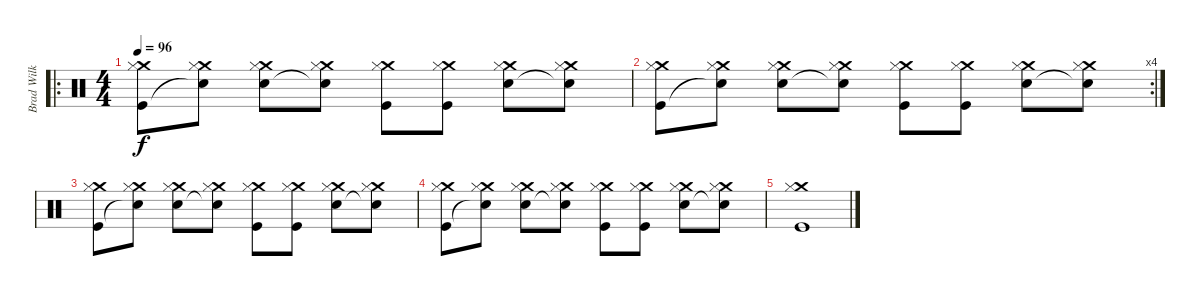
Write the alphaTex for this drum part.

\track ("Brad Wilk" "Brad Wilk") {instrument percussion}
\staff {score}
\articulation defaults
\ro
\ts (4 4)
\tempo 96
\clef neutral
\ks c
("Crash medium (hit)" "Hi-Hat (closed)" "Kick (hit)").8{dy f} ("Crash medium (hit)" "Hi-Hat (closed)" "Snare (hit)"{t}).8 ("Crash medium (hit)" "Hi-Hat (closed)" "Snare (hit) 2").8 ("Crash medium (hit)" "Hi-Hat (closed)" "Snare (hit)"{t}).8 ("Crash medium (hit)" "Hi-Hat (closed)" "Kick (hit)").8 ("Crash medium (hit)" "Hi-Hat (closed)" "Kick (hit)").8 ("Crash medium (hit)" "Hi-Hat (closed)" "Snare (hit) 2").8 ("Crash medium (hit)" "Hi-Hat (closed)" "Snare (hit)"{t}).8 |
\rc 4
("Crash medium (hit)" "Hi-Hat (closed)" "Kick (hit)").8 ("Crash medium (hit)" "Hi-Hat (closed)" "Snare (hit)"{t}).8 ("Crash medium (hit)" "Hi-Hat (closed)" "Snare (hit) 2").8 ("Crash medium (hit)" "Hi-Hat (closed)" "Snare (hit)"{t}).8 ("Crash medium (hit)" "Hi-Hat (closed)" "Kick (hit)").8 ("Crash medium (hit)" "Hi-Hat (closed)" "Kick (hit)").8 ("Crash medium (hit)" "Hi-Hat (closed)" "Snare (hit) 2").8 ("Crash medium (hit)" "Hi-Hat (closed)" "Snare (hit)"{t}).8 |
("Crash medium (hit)" "Hi-Hat (closed)" "Kick (hit)").8 ("Crash medium (hit)" "Hi-Hat (closed)" "Snare (hit)"{t}).8 ("Crash medium (hit)" "Hi-Hat (closed)" "Snare (hit) 2").8 ("Crash medium (hit)" "Hi-Hat (closed)" "Snare (hit)"{t}).8 ("Crash medium (hit)" "Hi-Hat (closed)" "Kick (hit)").8 ("Crash medium (hit)" "Hi-Hat (closed)" "Kick (hit)").8 ("Crash medium (hit)" "Hi-Hat (closed)" "Snare (hit) 2").8 ("Crash medium (hit)" "Hi-Hat (closed)" "Snare (hit)"{t}).8 |
("Crash medium (hit)" "Hi-Hat (closed)" "Kick (hit)").8 ("Crash medium (hit)" "Hi-Hat (closed)" "Snare (hit)"{t}).8 ("Crash medium (hit)" "Hi-Hat (closed)" "Snare (hit) 2").8 ("Crash medium (hit)" "Hi-Hat (closed)" "Snare (hit)"{t}).8 ("Crash medium (hit)" "Hi-Hat (closed)" "Kick (hit)").8 ("Crash medium (hit)" "Hi-Hat (closed)" "Kick (hit)").8 ("Crash medium (hit)" "Hi-Hat (closed)" "Snare (hit) 2").8 ("Crash medium (hit)" "Hi-Hat (closed)" "Snare (hit)"{t}).8 |
("Crash medium (hit)" "Hi-Hat (closed)" "Kick (hit)").1
